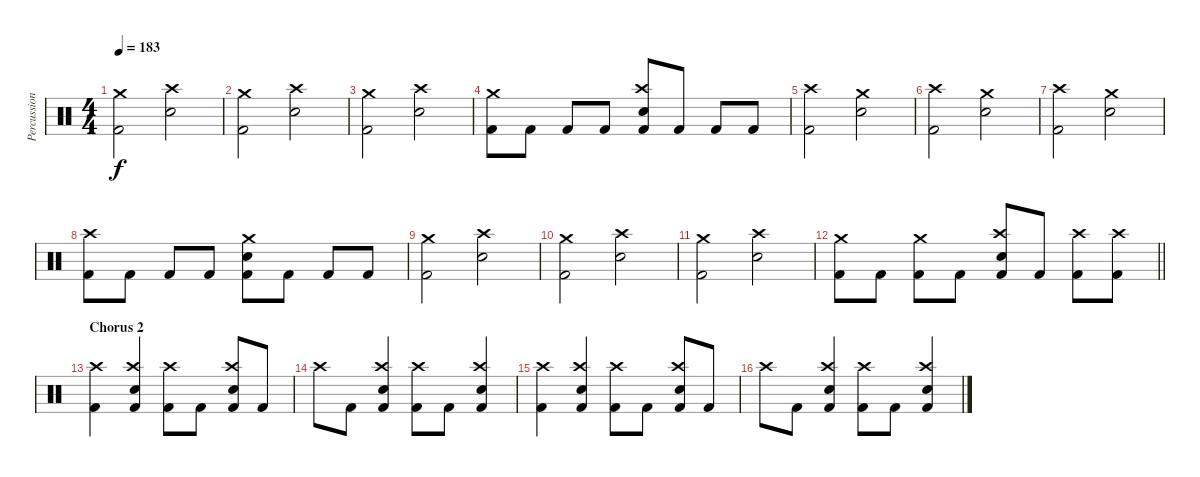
\track ("Percussion" "Percussion") {instrument percussion}
\staff {score}
\articulation defaults
\ts (4 4)
\tempo 183
\clef neutral
\ks aminor
("Crash medium (hit)" "Kick (hit) 2").2{dy f} ("Crash high (hit)" "Electric Snare (hit)").2 |
("Crash medium (hit)" "Kick (hit) 2").2 ("Crash high (hit)" "Electric Snare (hit)").2 |
("Crash medium (hit)" "Kick (hit) 2").2 ("Crash high (hit)" "Electric Snare (hit)").2 |
("Crash medium (hit)" "Kick (hit) 2").8 "Kick (hit) 2".8 "Kick (hit) 2".8 "Kick (hit) 2".8 ("Crash high (hit)" "Electric Snare (hit)" "Kick (hit) 2").8 "Kick (hit) 2".8 "Kick (hit) 2".8 "Kick (hit) 2".8 |
("Crash high (hit)" "Kick (hit) 2").2 ("Crash medium (hit)" "Electric Snare (hit)").2 |
("Crash high (hit)" "Kick (hit) 2").2 ("Crash medium (hit)" "Electric Snare (hit)").2 |
("Crash high (hit)" "Kick (hit) 2").2 ("Crash medium (hit)" "Electric Snare (hit)").2 |
("Crash high (hit)" "Kick (hit) 2").8 "Kick (hit) 2".8 "Kick (hit) 2".8 "Kick (hit) 2".8 ("Crash medium (hit)" "Electric Snare (hit)" "Kick (hit) 2").8 "Kick (hit) 2".8 "Kick (hit) 2".8 "Kick (hit) 2".8 |
("Crash medium (hit)" "Kick (hit) 2").2 ("Crash high (hit)" "Electric Snare (hit)").2 |
("Crash medium (hit)" "Kick (hit) 2").2 ("Crash high (hit)" "Electric Snare (hit)").2 |
("Crash medium (hit)" "Kick (hit) 2").2 ("Crash high (hit)" "Electric Snare (hit)").2 |
\barLineRight lightlight
("Crash medium (hit)" "Kick (hit) 2").8 "Kick (hit) 2".8 ("Crash medium (hit)" "Kick (hit) 2").8 "Kick (hit) 2".8 ("Crash high (hit)" "Electric Snare (hit)" "Kick (hit) 2").8 "Kick (hit) 2".8 ("Crash high (hit)" "Kick (hit) 2").8 ("Crash high (hit)" "Kick (hit) 2").8 |
\section ("" "Chorus 2")
("Crash high (hit)" "Kick (hit) 2").4 ("Crash high (hit)" "Electric Snare (hit)" "Kick (hit) 2").4 ("Crash high (hit)" "Kick (hit) 2").8 "Kick (hit) 2".8 ("Crash high (hit)" "Electric Snare (hit)" "Kick (hit) 2").8 "Kick (hit) 2".8 |
"Crash high (hit)".8 "Kick (hit) 2".8 ("Crash high (hit)" "Electric Snare (hit)" "Kick (hit) 2").4 ("Crash high (hit)" "Kick (hit) 2").8 "Kick (hit) 2".8 ("Crash high (hit)" "Electric Snare (hit)" "Kick (hit) 2").4 |
("Crash high (hit)" "Kick (hit) 2").4 ("Crash high (hit)" "Electric Snare (hit)" "Kick (hit) 2").4 ("Crash high (hit)" "Kick (hit) 2").8 "Kick (hit) 2".8 ("Crash high (hit)" "Electric Snare (hit)" "Kick (hit) 2").8 "Kick (hit) 2".8 |
"Crash high (hit)".8 "Kick (hit) 2".8 ("Crash high (hit)" "Electric Snare (hit)" "Kick (hit) 2").4 ("Crash high (hit)" "Kick (hit) 2").8 "Kick (hit) 2".8 ("Crash high (hit)" "Electric Snare (hit)" "Kick (hit) 2").4
